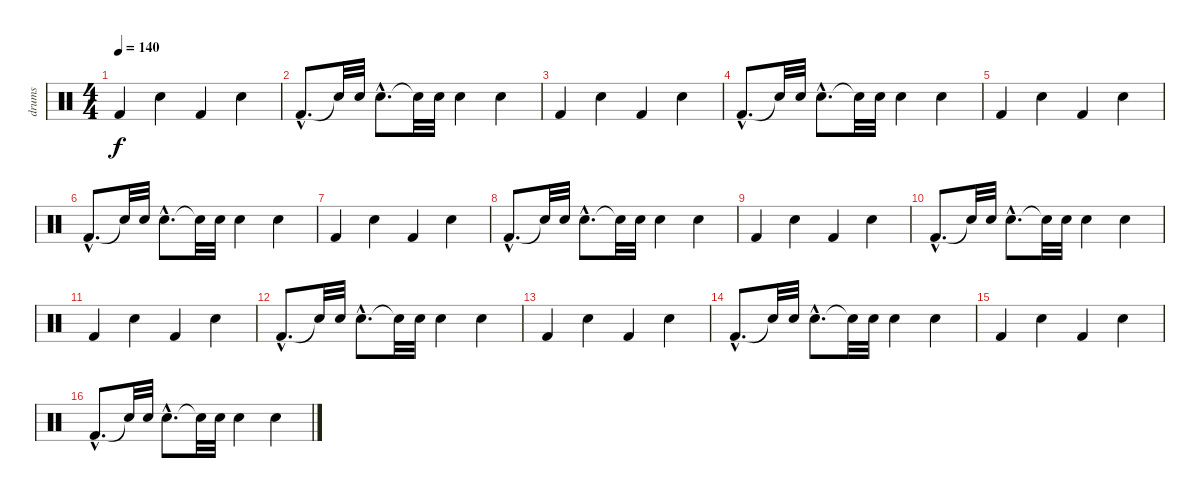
\track ("drums" "drums") {instrument percussion}
\staff {score}
\articulation defaults
\ts (4 4)
\tempo 140
\clef neutral
\ks c "Kick (hit) 2".4{dy f} "Snare (hit) 2".4 "Kick (hit) 2".4 "Snare (hit) 2".4
|
"Kick (hit) 2"{hac}.8{d} "Snare (hit)"{t}.32 "Snare (hit) 2".32 "Snare (hit) 2"{hac}.8{d} "Snare (hit)"{t}.32 "Snare (hit) 2".32 "Snare (hit) 2".4 "Snare (hit) 2".4 |
"Kick (hit) 2".4 "Snare (hit) 2".4 "Kick (hit) 2".4 "Snare (hit) 2".4 |
"Kick (hit) 2"{hac}.8{d} "Snare (hit)"{t}.32 "Snare (hit) 2".32 "Snare (hit) 2"{hac}.8{d} "Snare (hit)"{t}.32 "Snare (hit) 2".32 "Snare (hit) 2".4 "Snare (hit) 2".4 |
"Kick (hit) 2".4 "Snare (hit) 2".4 "Kick (hit) 2".4 "Snare (hit) 2".4 |
"Kick (hit) 2"{hac}.8{d} "Snare (hit)"{t}.32 "Snare (hit) 2".32 "Snare (hit) 2"{hac}.8{d} "Snare (hit)"{t}.32 "Snare (hit) 2".32 "Snare (hit) 2".4 "Snare (hit) 2".4 |
"Kick (hit) 2".4 "Snare (hit) 2".4 "Kick (hit) 2".4 "Snare (hit) 2".4 |
"Kick (hit) 2"{hac}.8{d} "Snare (hit)"{t}.32 "Snare (hit) 2".32 "Snare (hit) 2"{hac}.8{d} "Snare (hit)"{t}.32 "Snare (hit) 2".32 "Snare (hit) 2".4 "Snare (hit) 2".4 |
"Kick (hit) 2".4 "Snare (hit) 2".4 "Kick (hit) 2".4 "Snare (hit) 2".4 |
"Kick (hit) 2"{hac}.8{d} "Snare (hit)"{t}.32 "Snare (hit) 2".32 "Snare (hit) 2"{hac}.8{d} "Snare (hit)"{t}.32 "Snare (hit) 2".32 "Snare (hit) 2".4 "Snare (hit) 2".4 |
"Kick (hit) 2".4 "Snare (hit) 2".4 "Kick (hit) 2".4 "Snare (hit) 2".4 |
"Kick (hit) 2"{hac}.8{d} "Snare (hit)"{t}.32 "Snare (hit) 2".32 "Snare (hit) 2"{hac}.8{d} "Snare (hit)"{t}.32 "Snare (hit) 2".32 "Snare (hit) 2".4 "Snare (hit) 2".4 |
"Kick (hit) 2".4 "Snare (hit) 2".4 "Kick (hit) 2".4 "Snare (hit) 2".4 |
"Kick (hit) 2"{hac}.8{d} "Snare (hit)"{t}.32 "Snare (hit) 2".32 "Snare (hit) 2"{hac}.8{d} "Snare (hit)"{t}.32 "Snare (hit) 2".32 "Snare (hit) 2".4 "Snare (hit) 2".4 |
"Kick (hit) 2".4 "Snare (hit) 2".4 "Kick (hit) 2".4 "Snare (hit) 2".4 |
"Kick (hit) 2"{hac}.8{d} "Snare (hit)"{t}.32 "Snare (hit) 2".32 "Snare (hit) 2"{hac}.8{d} "Snare (hit)"{t}.32 "Snare (hit) 2".32 "Snare (hit) 2".4 "Snare (hit) 2".4
